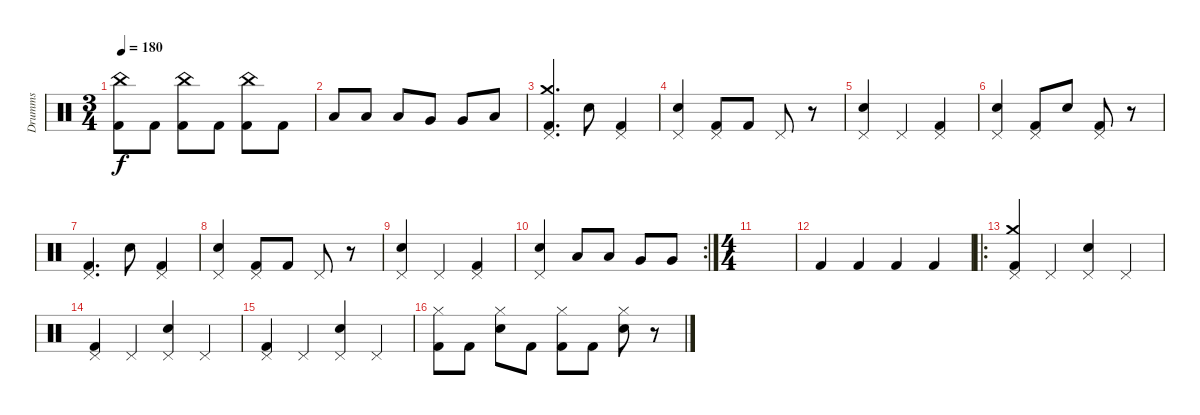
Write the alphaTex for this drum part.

\track ("Drumms" "Drumms") {instrument percussion}
\staff {score}
\articulation defaults
\ts (3 4)
\tempo 180
\clef neutral
\ks c
("Kick (hit) 2" "China (hit)").8{dy f} "Kick (hit) 2".8 ("Kick (hit) 2" "China (hit)").8 "Kick (hit) 2".8 ("Kick (hit) 2" "China (hit)").8 "Kick (hit) 2".8 |
"Low Tom (hit)".8 "Low Tom (hit)".8 "Low Tom (hit)".8 "Very Low Tom (hit)".8 "Very Low Tom (hit)".8 "Low Floor Tom (hit)".8 |
("Kick (hit) 2" "Crash medium (hit)" "Pedal Hi-Hat (hit)").4{d} "Snare (hit) 2".8 ("Kick (hit) 2" "Pedal Hi-Hat (hit)").4 |
("Snare (hit) 2" "Pedal Hi-Hat (hit)").4 ("Kick (hit) 2" "Pedal Hi-Hat (hit)").8 "Kick (hit) 2".8 "Pedal Hi-Hat (hit)".8 r.8 |
("Snare (hit) 2" "Pedal Hi-Hat (hit)").4 "Pedal Hi-Hat (hit)".4 ("Kick (hit) 2" "Pedal Hi-Hat (hit)").4 |
("Snare (hit) 2" "Pedal Hi-Hat (hit)").4 ("Kick (hit) 2" "Pedal Hi-Hat (hit)").8 "Snare (hit) 2".8 ("Kick (hit) 2" "Pedal Hi-Hat (hit)").8 r.8 |
("Kick (hit) 2" "Pedal Hi-Hat (hit)").4{d} "Snare (hit) 2".8 ("Kick (hit) 2" "Pedal Hi-Hat (hit)").4 |
("Snare (hit) 2" "Pedal Hi-Hat (hit)").4 ("Kick (hit) 2" "Pedal Hi-Hat (hit)").8 "Kick (hit) 2".8 "Pedal Hi-Hat (hit)".8 r.8 |
("Snare (hit) 2" "Pedal Hi-Hat (hit)").4 "Pedal Hi-Hat (hit)".4 ("Kick (hit) 2" "Pedal Hi-Hat (hit)").4 |
\rc 2
("Snare (hit) 2" "Pedal Hi-Hat (hit)").4 "Low Tom (hit)".8 "Low Tom (hit)".8 "Very Low Tom (hit)".8 "Very Low Tom (hit)".8 |
\ts (4 4)
|
"Kick (hit) 2".4 "Kick (hit) 2".4 "Kick (hit) 2".4 "Kick (hit) 2".4 |
\ro
("Kick (hit) 2" "Crash medium (hit)" "Pedal Hi-Hat (hit)").4 "Pedal Hi-Hat (hit)".4 ("Snare (hit) 2" "Pedal Hi-Hat (hit)").4 "Pedal Hi-Hat (hit)".4 |
("Kick (hit) 2" "Pedal Hi-Hat (hit)").4 "Pedal Hi-Hat (hit)".4 ("Snare (hit) 2" "Pedal Hi-Hat (hit)").4 "Pedal Hi-Hat (hit)".4 |
("Kick (hit) 2" "Pedal Hi-Hat (hit)").4 "Pedal Hi-Hat (hit)".4 ("Snare (hit) 2" "Pedal Hi-Hat (hit)").4 "Pedal Hi-Hat (hit)".4 |
("Kick (hit) 2" "Hi-Hat (closed)").8 "Kick (hit) 2".8 ("Snare (hit) 2" "Hi-Hat (closed)").8 "Kick (hit) 2".8 ("Kick (hit) 2" "Hi-Hat (closed)").8 "Kick (hit) 2".8 ("Snare (hit) 2" "Hi-Hat (closed)").8 r.8
